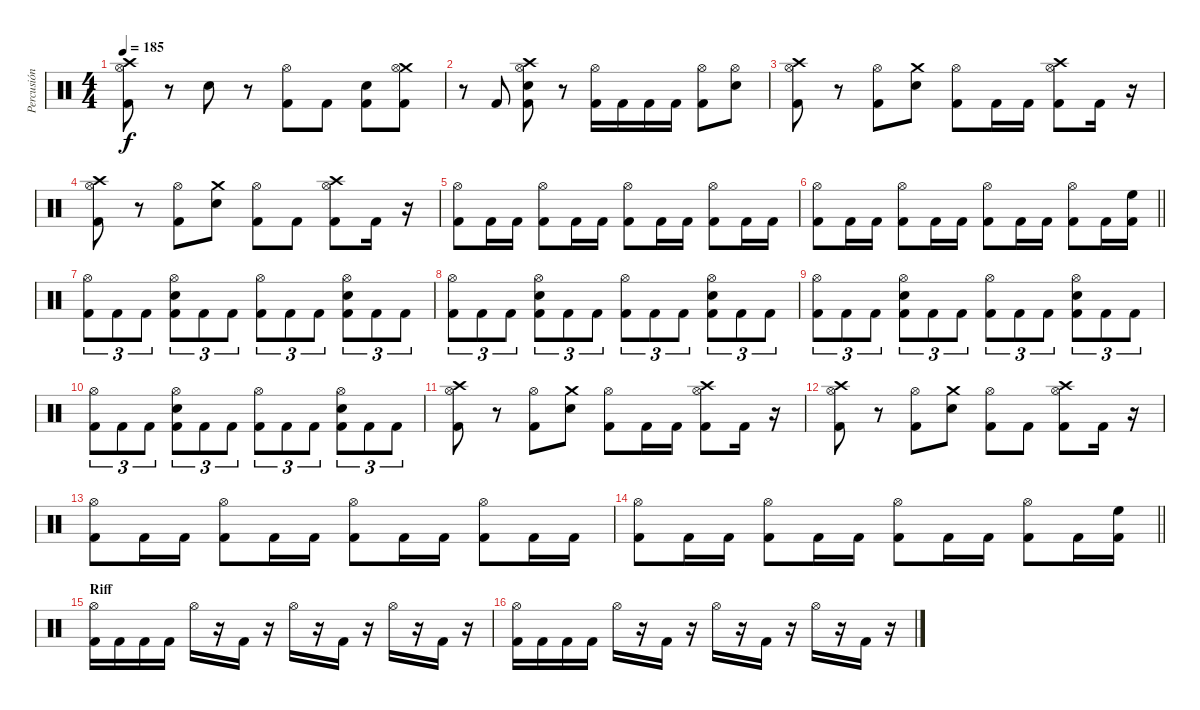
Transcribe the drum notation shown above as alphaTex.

\track ("Percusión" "Percusión") {instrument percussion}
\staff {score}
\articulation defaults
\ts (4 4)
\tempo 185
\clef neutral
\ks c
("Crash high (hit)" "Hi-Hat (open)" "Kick (hit) 2").8{dy f} r.8 "Snare (hit) 2".8 r.8 ("Hi-Hat (open)" "Kick (hit) 2").8 "Kick (hit) 2".8 ("Snare (hit) 2" "Kick (hit) 2").8 ("Crash medium (hit)" "Hi-Hat (open)" "Kick (hit) 2").8 |
r.8 "Kick (hit) 2".8 ("Crash high (hit)" "Hi-Hat (open)" "Snare (hit) 2" "Kick (hit) 2").8 r.8 ("Hi-Hat (open)" "Kick (hit) 2").16 "Kick (hit) 2".16 "Kick (hit) 2".16 "Kick (hit) 2".16 ("Hi-Hat (open)" "Kick (hit) 2").8 ("Hi-Hat (open)" "Snare (hit) 2").8 |
("Crash high (hit)" "Hi-Hat (open)" "Kick (hit) 2").8 r.8 ("Hi-Hat (open)" "Kick (hit) 2").8 ("Crash medium (hit)" "Snare (hit) 2").8 ("Hi-Hat (open)" "Kick (hit) 2").8 "Kick (hit) 2".16 "Kick (hit) 2".16 ("Crash high (hit)" "Hi-Hat (open)" "Kick (hit) 2").8 "Kick (hit) 2".16 r.16 |
("Crash high (hit)" "Hi-Hat (open)" "Kick (hit) 2").8 r.8 ("Hi-Hat (open)" "Kick (hit) 2").8 ("Crash medium (hit)" "Snare (hit) 2").8 ("Hi-Hat (open)" "Kick (hit) 2").8 "Kick (hit) 2".8 ("Crash high (hit)" "Hi-Hat (open)" "Kick (hit) 2").8 "Kick (hit) 2".16 r.16 |
("Hi-Hat (open)" "Kick (hit) 2").8 "Kick (hit) 2".16 "Kick (hit) 2".16 ("Hi-Hat (open)" "Kick (hit) 2").8 "Kick (hit) 2".16 "Kick (hit) 2".16 ("Hi-Hat (open)" "Kick (hit) 2").8 "Kick (hit) 2".16 "Kick (hit) 2".16 ("Hi-Hat (open)" "Kick (hit) 2").8 "Kick (hit) 2".16 "Kick (hit) 2".16 |
\barLineRight lightlight
("Hi-Hat (open)" "Kick (hit) 2").8 "Kick (hit) 2".16 "Kick (hit) 2".16 ("Hi-Hat (open)" "Kick (hit) 2").8 "Kick (hit) 2".16 "Kick (hit) 2".16 ("Hi-Hat (open)" "Kick (hit) 2").8 "Kick (hit) 2".16 "Kick (hit) 2".16 ("Hi-Hat (open)" "Kick (hit) 2").8 "Kick (hit) 2".16 ("High Floor Tom (hit)" "Kick (hit) 2").16 |
("Hi-Hat (open)" "Kick (hit) 2").8{tu (3 2)} "Kick (hit) 2".8{tu (3 2)} "Kick (hit) 2".8{tu (3 2)} ("Hi-Hat (open)" "Snare (hit) 2" "Kick (hit) 2").8{tu (3 2)} "Kick (hit) 2".8{tu (3 2)} "Kick (hit) 2".8{tu (3 2)} ("Hi-Hat (open)" "Kick (hit) 2").8{tu (3 2)} "Kick (hit) 2".8{tu (3 2)} "Kick (hit) 2".8{tu (3 2)} ("Hi-Hat (open)" "Snare (hit) 2" "Kick (hit) 2").8{tu (3 2)} "Kick (hit) 2".8{tu (3 2)} "Kick (hit) 2".8{tu (3 2)} |
("Hi-Hat (open)" "Kick (hit) 2").8{tu (3 2)} "Kick (hit) 2".8{tu (3 2)} "Kick (hit) 2".8{tu (3 2)} ("Hi-Hat (open)" "Snare (hit) 2" "Kick (hit) 2").8{tu (3 2)} "Kick (hit) 2".8{tu (3 2)} "Kick (hit) 2".8{tu (3 2)} ("Hi-Hat (open)" "Kick (hit) 2").8{tu (3 2)} "Kick (hit) 2".8{tu (3 2)} "Kick (hit) 2".8{tu (3 2)} ("Hi-Hat (open)" "Snare (hit) 2" "Kick (hit) 2").8{tu (3 2)} "Kick (hit) 2".8{tu (3 2)} "Kick (hit) 2".8{tu (3 2)} |
("Hi-Hat (open)" "Kick (hit) 2").8{tu (3 2)} "Kick (hit) 2".8{tu (3 2)} "Kick (hit) 2".8{tu (3 2)} ("Hi-Hat (open)" "Snare (hit) 2" "Kick (hit) 2").8{tu (3 2)} "Kick (hit) 2".8{tu (3 2)} "Kick (hit) 2".8{tu (3 2)} ("Hi-Hat (open)" "Kick (hit) 2").8{tu (3 2)} "Kick (hit) 2".8{tu (3 2)} "Kick (hit) 2".8{tu (3 2)} ("Hi-Hat (open)" "Snare (hit) 2" "Kick (hit) 2").8{tu (3 2)} "Kick (hit) 2".8{tu (3 2)} "Kick (hit) 2".8{tu (3 2)} |
("Hi-Hat (open)" "Kick (hit) 2").8{tu (3 2)} "Kick (hit) 2".8{tu (3 2)} "Kick (hit) 2".8{tu (3 2)} ("Hi-Hat (open)" "Snare (hit) 2" "Kick (hit) 2").8{tu (3 2)} "Kick (hit) 2".8{tu (3 2)} "Kick (hit) 2".8{tu (3 2)} ("Hi-Hat (open)" "Kick (hit) 2").8{tu (3 2)} "Kick (hit) 2".8{tu (3 2)} "Kick (hit) 2".8{tu (3 2)} ("Hi-Hat (open)" "Snare (hit) 2" "Kick (hit) 2").8{tu (3 2)} "Kick (hit) 2".8{tu (3 2)} "Kick (hit) 2".8{tu (3 2)} |
("Crash high (hit)" "Hi-Hat (open)" "Kick (hit) 2").8 r.8 ("Hi-Hat (open)" "Kick (hit) 2").8 ("Crash medium (hit)" "Snare (hit) 2").8 ("Hi-Hat (open)" "Kick (hit) 2").8 "Kick (hit) 2".16 "Kick (hit) 2".16 ("Crash high (hit)" "Hi-Hat (open)" "Kick (hit) 2").8 "Kick (hit) 2".16 r.16 |
("Crash high (hit)" "Hi-Hat (open)" "Kick (hit) 2").8 r.8 ("Hi-Hat (open)" "Kick (hit) 2").8 ("Crash medium (hit)" "Snare (hit) 2").8 ("Hi-Hat (open)" "Kick (hit) 2").8 "Kick (hit) 2".8 ("Crash high (hit)" "Hi-Hat (open)" "Kick (hit) 2").8 "Kick (hit) 2".16 r.16 |
("Hi-Hat (open)" "Kick (hit) 2").8 "Kick (hit) 2".16 "Kick (hit) 2".16 ("Hi-Hat (open)" "Kick (hit) 2").8 "Kick (hit) 2".16 "Kick (hit) 2".16 ("Hi-Hat (open)" "Kick (hit) 2").8 "Kick (hit) 2".16 "Kick (hit) 2".16 ("Hi-Hat (open)" "Kick (hit) 2").8 "Kick (hit) 2".16 "Kick (hit) 2".16 |
\barLineRight lightlight
("Hi-Hat (open)" "Kick (hit) 2").8 "Kick (hit) 2".16 "Kick (hit) 2".16 ("Hi-Hat (open)" "Kick (hit) 2").8 "Kick (hit) 2".16 "Kick (hit) 2".16 ("Hi-Hat (open)" "Kick (hit) 2").8 "Kick (hit) 2".16 "Kick (hit) 2".16 ("Hi-Hat (open)" "Kick (hit) 2").8 "Kick (hit) 2".16 ("High Floor Tom (hit)" "Kick (hit) 2").16 |
\section ("" "Riff")
("Hi-Hat (open)" "Kick (hit) 2").16 "Kick (hit) 2".16 "Kick (hit) 2".16 "Kick (hit) 2".16 "Hi-Hat (open)".16 r.16 "Kick (hit) 2".16 r.16 "Hi-Hat (open)".16 r.16 "Kick (hit) 2".16 r.16 "Hi-Hat (open)".16 r.16 "Kick (hit) 2".16 r.16 |
("Hi-Hat (open)" "Kick (hit) 2").16 "Kick (hit) 2".16 "Kick (hit) 2".16 "Kick (hit) 2".16 "Hi-Hat (open)".16 r.16 "Kick (hit) 2".16 r.16 "Hi-Hat (open)".16 r.16 "Kick (hit) 2".16 r.16 "Hi-Hat (open)".16 r.16 "Kick (hit) 2".16 r.16
